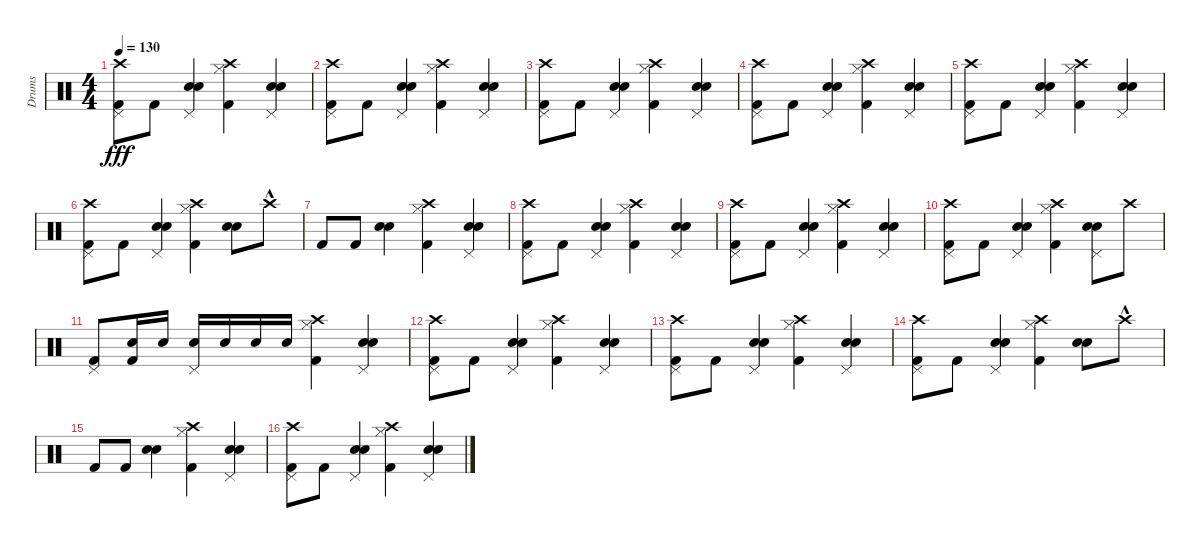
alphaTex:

\track ("Drums" "Drums") {instrument percussion}
\staff {score}
\articulation defaults
\ts (4 4)
\tempo 130
\clef neutral
\ks c
("Pedal Hi-Hat (hit)" "Kick (hit) 2" "Crash high (hit)").8{dy fff} "Kick (hit) 2".8 ("Electric Snare (hit)" "Pedal Hi-Hat (hit)" "Snare (hit) 2").4 ("Hi-Hat (closed)" "Kick (hit) 2" "Crash high (hit)").4 ("Electric Snare (hit)" "Pedal Hi-Hat (hit)" "Snare (hit) 2").4 |
("Pedal Hi-Hat (hit)" "Kick (hit) 2" "Crash high (hit)").8 "Kick (hit) 2".8 ("Electric Snare (hit)" "Pedal Hi-Hat (hit)" "Snare (hit) 2").4 ("Hi-Hat (closed)" "Kick (hit) 2" "Crash high (hit)").4 ("Electric Snare (hit)" "Pedal Hi-Hat (hit)" "Snare (hit) 2").4 |
("Pedal Hi-Hat (hit)" "Kick (hit) 2" "Crash high (hit)").8 "Kick (hit) 2".8 ("Electric Snare (hit)" "Pedal Hi-Hat (hit)" "Snare (hit) 2").4 ("Hi-Hat (closed)" "Kick (hit) 2" "Crash high (hit)").4 ("Electric Snare (hit)" "Pedal Hi-Hat (hit)" "Snare (hit) 2").4 |
("Pedal Hi-Hat (hit)" "Kick (hit) 2" "Crash high (hit)").8 "Kick (hit) 2".8 ("Electric Snare (hit)" "Pedal Hi-Hat (hit)" "Snare (hit) 2").4 ("Hi-Hat (closed)" "Kick (hit) 2" "Crash high (hit)").4 ("Electric Snare (hit)" "Pedal Hi-Hat (hit)" "Snare (hit) 2").4 |
("Pedal Hi-Hat (hit)" "Kick (hit) 2" "Crash high (hit)").8 "Kick (hit) 2".8 ("Electric Snare (hit)" "Pedal Hi-Hat (hit)" "Snare (hit) 2").4 ("Hi-Hat (closed)" "Kick (hit) 2" "Crash high (hit)").4 ("Electric Snare (hit)" "Pedal Hi-Hat (hit)" "Snare (hit) 2").4 |
("Pedal Hi-Hat (hit)" "Kick (hit) 2" "Crash high (hit)").8 "Kick (hit) 2".8 ("Electric Snare (hit)" "Pedal Hi-Hat (hit)" "Snare (hit) 2").4 ("Hi-Hat (closed)" "Kick (hit) 2" "Crash high (hit)").4 ("Electric Snare (hit)" "Snare (hit) 2").8 "Crash high (hit)"{hac}.8 |
"Kick (hit) 2".8 "Kick (hit) 2".8 ("Electric Snare (hit)" "Snare (hit) 2").4 ("Hi-Hat (closed)" "Kick (hit) 2" "Crash high (hit)").4 ("Electric Snare (hit)" "Pedal Hi-Hat (hit)" "Snare (hit) 2").4 |
("Pedal Hi-Hat (hit)" "Kick (hit) 2" "Crash high (hit)").8 "Kick (hit) 2".8 ("Electric Snare (hit)" "Pedal Hi-Hat (hit)" "Snare (hit) 2").4 ("Hi-Hat (closed)" "Kick (hit) 2" "Crash high (hit)").4 ("Electric Snare (hit)" "Pedal Hi-Hat (hit)" "Snare (hit) 2").4 |
("Pedal Hi-Hat (hit)" "Kick (hit) 2" "Crash high (hit)").8 "Kick (hit) 2".8 ("Electric Snare (hit)" "Pedal Hi-Hat (hit)" "Snare (hit) 2").4 ("Hi-Hat (closed)" "Kick (hit) 2" "Crash high (hit)").4 ("Electric Snare (hit)" "Pedal Hi-Hat (hit)" "Snare (hit) 2").4 |
("Pedal Hi-Hat (hit)" "Kick (hit) 2" "Crash high (hit)").8 "Kick (hit) 2".8 ("Electric Snare (hit)" "Pedal Hi-Hat (hit)" "Snare (hit) 2").4 ("Hi-Hat (closed)" "Kick (hit) 2" "Crash high (hit)").4 ("Electric Snare (hit)" "Pedal Hi-Hat (hit)" "Snare (hit) 2").8 "Crash high (hit)".8 |
("Pedal Hi-Hat (hit)" "Kick (hit) 2").8 ("Kick (hit) 2" "Snare (hit) 2").16 "Snare (hit) 2".16 ("Pedal Hi-Hat (hit)" "Electric Snare (hit)").16 "Electric Snare (hit)".16 "Electric Snare (hit)".16 "Electric Snare (hit)".16 ("Hi-Hat (closed)" "Kick (hit) 2" "Crash high (hit)").4 ("Electric Snare (hit)" "Pedal Hi-Hat (hit)" "Snare (hit) 2").4 |
("Pedal Hi-Hat (hit)" "Kick (hit) 2" "Crash high (hit)").8 "Kick (hit) 2".8 ("Electric Snare (hit)" "Pedal Hi-Hat (hit)" "Snare (hit) 2").4 ("Hi-Hat (closed)" "Kick (hit) 2" "Crash high (hit)").4 ("Electric Snare (hit)" "Pedal Hi-Hat (hit)" "Snare (hit) 2").4 |
("Pedal Hi-Hat (hit)" "Kick (hit) 2" "Crash high (hit)").8 "Kick (hit) 2".8 ("Electric Snare (hit)" "Pedal Hi-Hat (hit)" "Snare (hit) 2").4 ("Hi-Hat (closed)" "Kick (hit) 2" "Crash high (hit)").4 ("Electric Snare (hit)" "Pedal Hi-Hat (hit)" "Snare (hit) 2").4 |
("Pedal Hi-Hat (hit)" "Kick (hit) 2" "Crash high (hit)").8 "Kick (hit) 2".8 ("Electric Snare (hit)" "Pedal Hi-Hat (hit)" "Snare (hit) 2").4 ("Hi-Hat (closed)" "Kick (hit) 2" "Crash high (hit)").4 ("Electric Snare (hit)" "Snare (hit) 2").8 "Crash high (hit)"{hac}.8 |
"Kick (hit) 2".8 "Kick (hit) 2".8 ("Electric Snare (hit)" "Snare (hit) 2").4 ("Hi-Hat (closed)" "Kick (hit) 2" "Crash high (hit)").4 ("Electric Snare (hit)" "Pedal Hi-Hat (hit)" "Snare (hit) 2").4 |
("Pedal Hi-Hat (hit)" "Kick (hit) 2" "Crash high (hit)").8 "Kick (hit) 2".8 ("Electric Snare (hit)" "Pedal Hi-Hat (hit)" "Snare (hit) 2").4 ("Hi-Hat (closed)" "Kick (hit) 2" "Crash high (hit)").4 ("Electric Snare (hit)" "Pedal Hi-Hat (hit)" "Snare (hit) 2").4
